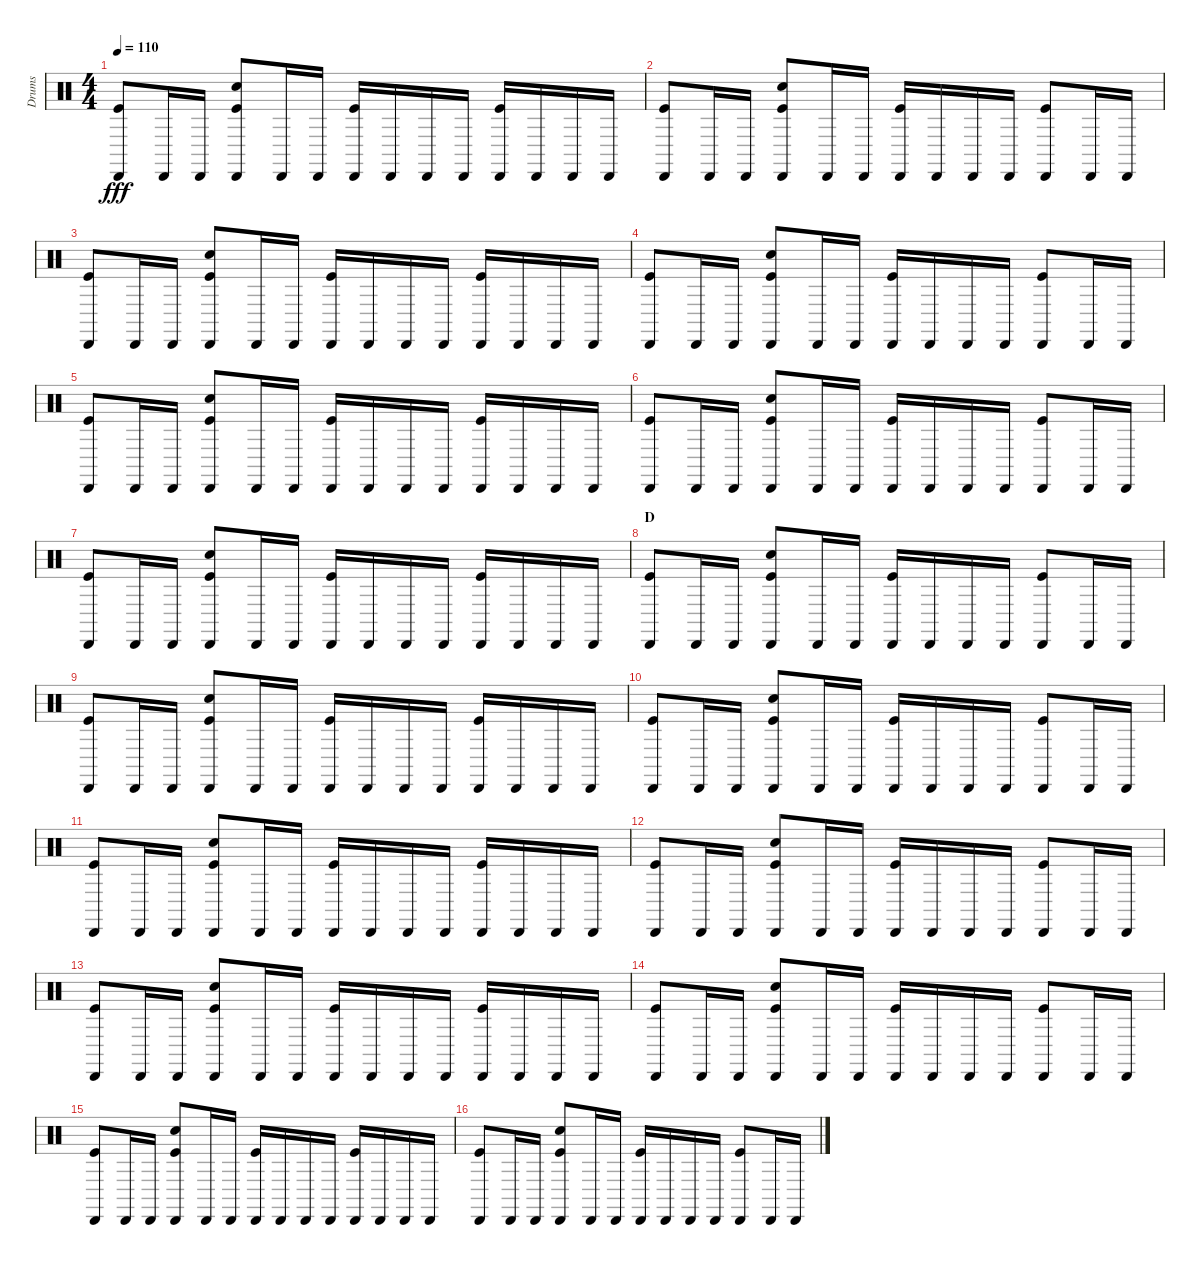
\track ("Drums" "Drums") {instrument percussion}
\staff {score}
\articulation defaults
\ts (4 4)
\tempo 110
\clef neutral
\ks c
("Cabasa (hit)" "Kick (hit)").8{dy fff} "Cabasa (hit)".16 "Cabasa (hit)".16 ("Cabasa (hit)" "Snare (hit) 2" "Kick (hit)").8 "Cabasa (hit)".16 "Cabasa (hit)".16 ("Cabasa (hit)" "Kick (hit)").16 "Cabasa (hit)".16 "Cabasa (hit)".16 "Cabasa (hit)".16 ("Cabasa (hit)" "Kick (hit)").16 "Cabasa (hit)".16 "Cabasa (hit)".16 "Cabasa (hit)".16 |
("Cabasa (hit)" "Kick (hit)").8 "Cabasa (hit)".16 "Cabasa (hit)".16 ("Cabasa (hit)" "Snare (hit) 2" "Kick (hit)").8 "Cabasa (hit)".16 "Cabasa (hit)".16 ("Cabasa (hit)" "Kick (hit)").16 "Cabasa (hit)".16 "Cabasa (hit)".16 "Cabasa (hit)".16 ("Cabasa (hit)" "Kick (hit)").8 "Cabasa (hit)".16 "Cabasa (hit)".16 |
("Cabasa (hit)" "Kick (hit)").8 "Cabasa (hit)".16 "Cabasa (hit)".16 ("Cabasa (hit)" "Snare (hit) 2" "Kick (hit)").8 "Cabasa (hit)".16 "Cabasa (hit)".16 ("Cabasa (hit)" "Kick (hit)").16 "Cabasa (hit)".16 "Cabasa (hit)".16 "Cabasa (hit)".16 ("Cabasa (hit)" "Kick (hit)").16 "Cabasa (hit)".16 "Cabasa (hit)".16 "Cabasa (hit)".16 |
("Cabasa (hit)" "Kick (hit)").8 "Cabasa (hit)".16 "Cabasa (hit)".16 ("Cabasa (hit)" "Snare (hit) 2" "Kick (hit)").8 "Cabasa (hit)".16 "Cabasa (hit)".16 ("Cabasa (hit)" "Kick (hit)").16 "Cabasa (hit)".16 "Cabasa (hit)".16 "Cabasa (hit)".16 ("Cabasa (hit)" "Kick (hit)").8 "Cabasa (hit)".16 "Cabasa (hit)".16 |
("Cabasa (hit)" "Kick (hit)").8 "Cabasa (hit)".16 "Cabasa (hit)".16 ("Cabasa (hit)" "Snare (hit) 2" "Kick (hit)").8 "Cabasa (hit)".16 "Cabasa (hit)".16 ("Cabasa (hit)" "Kick (hit)").16 "Cabasa (hit)".16 "Cabasa (hit)".16 "Cabasa (hit)".16 ("Cabasa (hit)" "Kick (hit)").16 "Cabasa (hit)".16 "Cabasa (hit)".16 "Cabasa (hit)".16 |
("Cabasa (hit)" "Kick (hit)").8 "Cabasa (hit)".16 "Cabasa (hit)".16 ("Cabasa (hit)" "Snare (hit) 2" "Kick (hit)").8 "Cabasa (hit)".16 "Cabasa (hit)".16 ("Cabasa (hit)" "Kick (hit)").16 "Cabasa (hit)".16 "Cabasa (hit)".16 "Cabasa (hit)".16 ("Cabasa (hit)" "Kick (hit)").8 "Cabasa (hit)".16 "Cabasa (hit)".16 |
("Cabasa (hit)" "Kick (hit)").8 "Cabasa (hit)".16 "Cabasa (hit)".16 ("Cabasa (hit)" "Snare (hit) 2" "Kick (hit)").8 "Cabasa (hit)".16 "Cabasa (hit)".16 ("Cabasa (hit)" "Kick (hit)").16 "Cabasa (hit)".16 "Cabasa (hit)".16 "Cabasa (hit)".16 ("Cabasa (hit)" "Kick (hit)").16 "Cabasa (hit)".16 "Cabasa (hit)".16 "Cabasa (hit)".16 |
\section ("" "D")
("Cabasa (hit)" "Kick (hit)").8 "Cabasa (hit)".16 "Cabasa (hit)".16 ("Cabasa (hit)" "Snare (hit) 2" "Kick (hit)").8 "Cabasa (hit)".16 "Cabasa (hit)".16 ("Cabasa (hit)" "Kick (hit)").16 "Cabasa (hit)".16 "Cabasa (hit)".16 "Cabasa (hit)".16 ("Cabasa (hit)" "Kick (hit)").8 "Cabasa (hit)".16 "Cabasa (hit)".16 |
("Cabasa (hit)" "Kick (hit)").8 "Cabasa (hit)".16 "Cabasa (hit)".16 ("Cabasa (hit)" "Snare (hit) 2" "Kick (hit)").8 "Cabasa (hit)".16 "Cabasa (hit)".16 ("Cabasa (hit)" "Kick (hit)").16 "Cabasa (hit)".16 "Cabasa (hit)".16 "Cabasa (hit)".16 ("Cabasa (hit)" "Kick (hit)").16 "Cabasa (hit)".16 "Cabasa (hit)".16 "Cabasa (hit)".16 |
("Cabasa (hit)" "Kick (hit)").8 "Cabasa (hit)".16 "Cabasa (hit)".16 ("Cabasa (hit)" "Snare (hit) 2" "Kick (hit)").8 "Cabasa (hit)".16 "Cabasa (hit)".16 ("Cabasa (hit)" "Kick (hit)").16 "Cabasa (hit)".16 "Cabasa (hit)".16 "Cabasa (hit)".16 ("Cabasa (hit)" "Kick (hit)").8 "Cabasa (hit)".16 "Cabasa (hit)".16 |
("Cabasa (hit)" "Kick (hit)").8 "Cabasa (hit)".16 "Cabasa (hit)".16 ("Cabasa (hit)" "Snare (hit) 2" "Kick (hit)").8 "Cabasa (hit)".16 "Cabasa (hit)".16 ("Cabasa (hit)" "Kick (hit)").16 "Cabasa (hit)".16 "Cabasa (hit)".16 "Cabasa (hit)".16 ("Cabasa (hit)" "Kick (hit)").16 "Cabasa (hit)".16 "Cabasa (hit)".16 "Cabasa (hit)".16 |
("Cabasa (hit)" "Kick (hit)").8 "Cabasa (hit)".16 "Cabasa (hit)".16 ("Cabasa (hit)" "Snare (hit) 2" "Kick (hit)").8 "Cabasa (hit)".16 "Cabasa (hit)".16 ("Cabasa (hit)" "Kick (hit)").16 "Cabasa (hit)".16 "Cabasa (hit)".16 "Cabasa (hit)".16 ("Cabasa (hit)" "Kick (hit)").8 "Cabasa (hit)".16 "Cabasa (hit)".16 |
("Cabasa (hit)" "Kick (hit)").8 "Cabasa (hit)".16 "Cabasa (hit)".16 ("Cabasa (hit)" "Snare (hit) 2" "Kick (hit)").8 "Cabasa (hit)".16 "Cabasa (hit)".16 ("Cabasa (hit)" "Kick (hit)").16 "Cabasa (hit)".16 "Cabasa (hit)".16 "Cabasa (hit)".16 ("Cabasa (hit)" "Kick (hit)").16 "Cabasa (hit)".16 "Cabasa (hit)".16 "Cabasa (hit)".16 |
("Cabasa (hit)" "Kick (hit)").8 "Cabasa (hit)".16 "Cabasa (hit)".16 ("Cabasa (hit)" "Snare (hit) 2" "Kick (hit)").8 "Cabasa (hit)".16 "Cabasa (hit)".16 ("Cabasa (hit)" "Kick (hit)").16 "Cabasa (hit)".16 "Cabasa (hit)".16 "Cabasa (hit)".16 ("Cabasa (hit)" "Kick (hit)").8 "Cabasa (hit)".16 "Cabasa (hit)".16 |
("Cabasa (hit)" "Kick (hit)").8 "Cabasa (hit)".16 "Cabasa (hit)".16 ("Cabasa (hit)" "Snare (hit) 2" "Kick (hit)").8 "Cabasa (hit)".16 "Cabasa (hit)".16 ("Cabasa (hit)" "Kick (hit)").16 "Cabasa (hit)".16 "Cabasa (hit)".16 "Cabasa (hit)".16 ("Cabasa (hit)" "Kick (hit)").16 "Cabasa (hit)".16 "Cabasa (hit)".16 "Cabasa (hit)".16 |
("Cabasa (hit)" "Kick (hit)").8 "Cabasa (hit)".16 "Cabasa (hit)".16 ("Cabasa (hit)" "Snare (hit) 2" "Kick (hit)").8 "Cabasa (hit)".16 "Cabasa (hit)".16 ("Cabasa (hit)" "Kick (hit)").16 "Cabasa (hit)".16 "Cabasa (hit)".16 "Cabasa (hit)".16 ("Cabasa (hit)" "Kick (hit)").8 "Cabasa (hit)".16 "Cabasa (hit)".16
